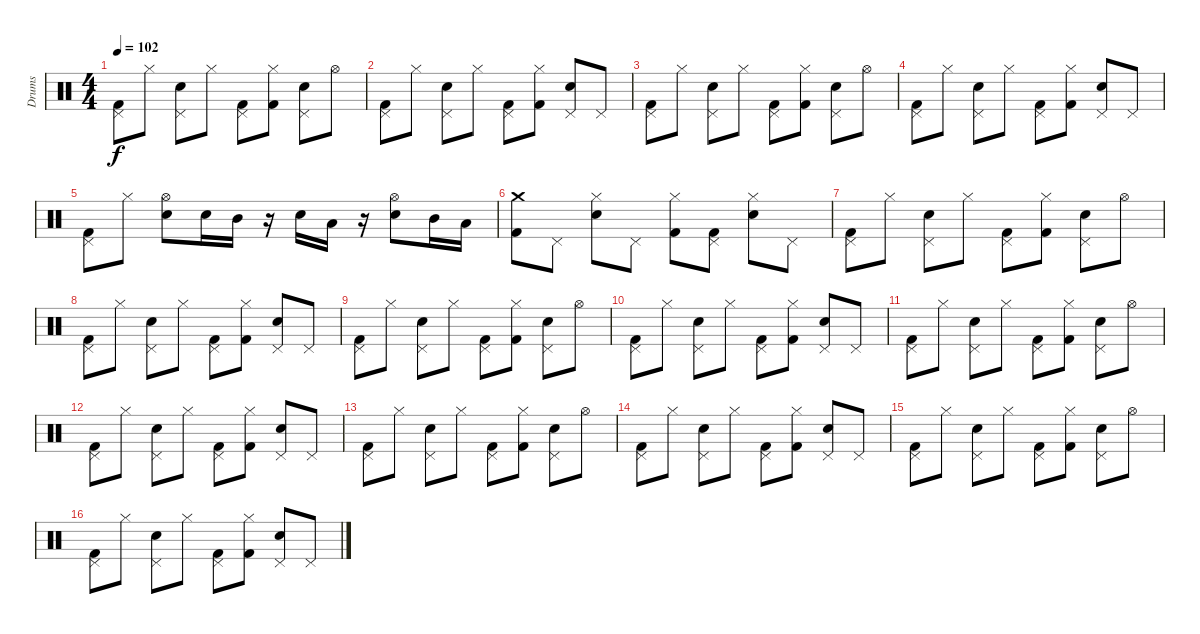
\track ("Drums" "Drums") {instrument percussion}
\staff {score}
\articulation defaults
\ts (4 4)
\tempo 102
\clef neutral
\ks c
("Pedal Hi-Hat (hit)" "Kick (hit) 2").8{dy f} "Hi-Hat (closed)".8 ("Pedal Hi-Hat (hit)" "Electric Snare (hit)").8 "Hi-Hat (closed)".8 ("Pedal Hi-Hat (hit)" "Kick (hit) 2").8 ("Hi-Hat (closed)" "Kick (hit) 2").8 ("Pedal Hi-Hat (hit)" "Electric Snare (hit)").8 "Hi-Hat (open)".8 |
("Pedal Hi-Hat (hit)" "Kick (hit) 2").8 "Hi-Hat (closed)".8 ("Pedal Hi-Hat (hit)" "Electric Snare (hit)").8 "Hi-Hat (closed)".8 ("Pedal Hi-Hat (hit)" "Kick (hit) 2").8 ("Hi-Hat (closed)" "Kick (hit) 2").8 ("Pedal Hi-Hat (hit)" "Electric Snare (hit)").8 "Pedal Hi-Hat (hit)".8 |
("Pedal Hi-Hat (hit)" "Kick (hit) 2").8 "Hi-Hat (closed)".8 ("Pedal Hi-Hat (hit)" "Electric Snare (hit)").8 "Hi-Hat (closed)".8 ("Pedal Hi-Hat (hit)" "Kick (hit) 2").8 ("Hi-Hat (closed)" "Kick (hit) 2").8 ("Pedal Hi-Hat (hit)" "Electric Snare (hit)").8 "Hi-Hat (open)".8 |
("Pedal Hi-Hat (hit)" "Kick (hit) 2").8 "Hi-Hat (closed)".8 ("Pedal Hi-Hat (hit)" "Electric Snare (hit)").8 "Hi-Hat (closed)".8 ("Pedal Hi-Hat (hit)" "Kick (hit) 2").8 ("Hi-Hat (closed)" "Kick (hit) 2").8 ("Pedal Hi-Hat (hit)" "Electric Snare (hit)").8 "Pedal Hi-Hat (hit)".8 |
("Pedal Hi-Hat (hit)" "Kick (hit) 2").8 "Hi-Hat (closed)".8 ("Hi-Hat (open)" "Electric Snare (hit)").8 "Electric Snare (hit)".16 "Mid Tom (hit)".16 r.16 "Electric Snare (hit)".16 "Low Tom (hit)".16 r.16 ("Hi-Hat (open)" "Electric Snare (hit)").8 "Mid Tom (hit)".16 "Low Tom (hit)".16 |
("Crash medium (hit)" "Kick (hit) 2").8 "Pedal Hi-Hat (hit)".8 ("Hi-Hat (closed)" "Electric Snare (hit)").8 "Pedal Hi-Hat (hit)".8 ("Hi-Hat (closed)" "Kick (hit) 2").8 ("Pedal Hi-Hat (hit)" "Kick (hit) 2").8 ("Hi-Hat (closed)" "Electric Snare (hit)").8 "Pedal Hi-Hat (hit)".8 |
("Pedal Hi-Hat (hit)" "Kick (hit) 2").8 "Hi-Hat (closed)".8 ("Pedal Hi-Hat (hit)" "Electric Snare (hit)").8 "Hi-Hat (closed)".8 ("Pedal Hi-Hat (hit)" "Kick (hit) 2").8 ("Hi-Hat (closed)" "Kick (hit) 2").8 ("Pedal Hi-Hat (hit)" "Electric Snare (hit)").8 "Hi-Hat (open)".8 |
("Pedal Hi-Hat (hit)" "Kick (hit) 2").8 "Hi-Hat (closed)".8 ("Pedal Hi-Hat (hit)" "Electric Snare (hit)").8 "Hi-Hat (closed)".8 ("Pedal Hi-Hat (hit)" "Kick (hit) 2").8 ("Hi-Hat (closed)" "Kick (hit) 2").8 ("Pedal Hi-Hat (hit)" "Electric Snare (hit)").8 "Pedal Hi-Hat (hit)".8 |
("Pedal Hi-Hat (hit)" "Kick (hit) 2").8 "Hi-Hat (closed)".8 ("Pedal Hi-Hat (hit)" "Electric Snare (hit)").8 "Hi-Hat (closed)".8 ("Pedal Hi-Hat (hit)" "Kick (hit) 2").8 ("Hi-Hat (closed)" "Kick (hit) 2").8 ("Pedal Hi-Hat (hit)" "Electric Snare (hit)").8 "Hi-Hat (open)".8 |
("Pedal Hi-Hat (hit)" "Kick (hit) 2").8 "Hi-Hat (closed)".8 ("Pedal Hi-Hat (hit)" "Electric Snare (hit)").8 "Hi-Hat (closed)".8 ("Pedal Hi-Hat (hit)" "Kick (hit) 2").8 ("Hi-Hat (closed)" "Kick (hit) 2").8 ("Pedal Hi-Hat (hit)" "Electric Snare (hit)").8 "Pedal Hi-Hat (hit)".8 |
("Pedal Hi-Hat (hit)" "Kick (hit) 2").8 "Hi-Hat (closed)".8 ("Pedal Hi-Hat (hit)" "Electric Snare (hit)").8 "Hi-Hat (closed)".8 ("Pedal Hi-Hat (hit)" "Kick (hit) 2").8 ("Hi-Hat (closed)" "Kick (hit) 2").8 ("Pedal Hi-Hat (hit)" "Electric Snare (hit)").8 "Hi-Hat (open)".8 |
("Pedal Hi-Hat (hit)" "Kick (hit) 2").8 "Hi-Hat (closed)".8 ("Pedal Hi-Hat (hit)" "Electric Snare (hit)").8 "Hi-Hat (closed)".8 ("Pedal Hi-Hat (hit)" "Kick (hit) 2").8 ("Hi-Hat (closed)" "Kick (hit) 2").8 ("Pedal Hi-Hat (hit)" "Electric Snare (hit)").8 "Pedal Hi-Hat (hit)".8 |
("Pedal Hi-Hat (hit)" "Kick (hit) 2").8 "Hi-Hat (closed)".8 ("Pedal Hi-Hat (hit)" "Electric Snare (hit)").8 "Hi-Hat (closed)".8 ("Pedal Hi-Hat (hit)" "Kick (hit) 2").8 ("Hi-Hat (closed)" "Kick (hit) 2").8 ("Pedal Hi-Hat (hit)" "Electric Snare (hit)").8 "Hi-Hat (open)".8 |
("Pedal Hi-Hat (hit)" "Kick (hit) 2").8 "Hi-Hat (closed)".8 ("Pedal Hi-Hat (hit)" "Electric Snare (hit)").8 "Hi-Hat (closed)".8 ("Pedal Hi-Hat (hit)" "Kick (hit) 2").8 ("Hi-Hat (closed)" "Kick (hit) 2").8 ("Pedal Hi-Hat (hit)" "Electric Snare (hit)").8 "Pedal Hi-Hat (hit)".8 |
("Pedal Hi-Hat (hit)" "Kick (hit) 2").8 "Hi-Hat (closed)".8 ("Pedal Hi-Hat (hit)" "Electric Snare (hit)").8 "Hi-Hat (closed)".8 ("Pedal Hi-Hat (hit)" "Kick (hit) 2").8 ("Hi-Hat (closed)" "Kick (hit) 2").8 ("Pedal Hi-Hat (hit)" "Electric Snare (hit)").8 "Hi-Hat (open)".8 |
("Pedal Hi-Hat (hit)" "Kick (hit) 2").8 "Hi-Hat (closed)".8 ("Pedal Hi-Hat (hit)" "Electric Snare (hit)").8 "Hi-Hat (closed)".8 ("Pedal Hi-Hat (hit)" "Kick (hit) 2").8 ("Hi-Hat (closed)" "Kick (hit) 2").8 ("Pedal Hi-Hat (hit)" "Electric Snare (hit)").8 "Pedal Hi-Hat (hit)".8
